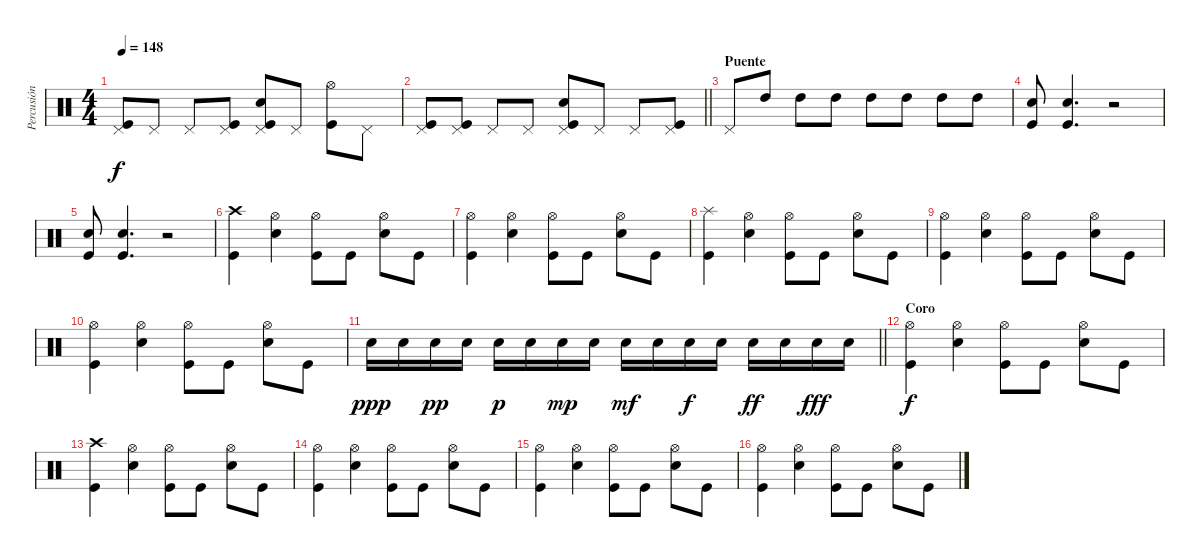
\track ("Percusión" "Percusión") {instrument percussion}
\staff {score}
\articulation defaults
\ts (4 4)
\tempo 148
\clef neutral
\ks c
("Pedal Hi-Hat (hit)" "Kick (hit)").8{dy f} "Pedal Hi-Hat (hit)".8 "Pedal Hi-Hat (hit)".8 ("Pedal Hi-Hat (hit)" "Kick (hit)").8 ("Pedal Hi-Hat (hit)" "Electric Snare (hit)" "Kick (hit)").8 "Pedal Hi-Hat (hit)".8 ("Hi-Hat (open)" "Kick (hit)").8 "Pedal Hi-Hat (hit)".8 |
\barLineRight lightlight
("Pedal Hi-Hat (hit)" "Kick (hit)").8 ("Pedal Hi-Hat (hit)" "Kick (hit)").8 "Pedal Hi-Hat (hit)".8 "Pedal Hi-Hat (hit)".8 ("Pedal Hi-Hat (hit)" "Electric Snare (hit)" "Kick (hit)").8 "Pedal Hi-Hat (hit)".8 "Pedal Hi-Hat (hit)".8 ("Pedal Hi-Hat (hit)" "Kick (hit)").8 |
\section ("" "Puente")
"Pedal Hi-Hat (hit)".8 "High Tom (hit)".8 "High Tom (hit)".8 "High Tom (hit)".8 "High Tom (hit)".8 "High Tom (hit)".8 "High Tom (hit)".8 "High Tom (hit)".8 |
("Electric Snare (hit)" "Kick (hit)").8 ("Electric Snare (hit)" "Kick (hit)").4{d} r.2 |
("Electric Snare (hit)" "Kick (hit)").8 ("Electric Snare (hit)" "Kick (hit)").4{d} r.2 |
("Crash high (hit)" "Kick (hit)").4 ("Hi-Hat (open)" "Electric Snare (hit)").4 ("Hi-Hat (open)" "Kick (hit)").8 "Kick (hit)".8 ("Hi-Hat (open)" "Electric Snare (hit)").8 "Kick (hit)".8 |
("Hi-Hat (open)" "Kick (hit)").4 ("Hi-Hat (open)" "Electric Snare (hit)").4 ("Hi-Hat (open)" "Kick (hit)").8 "Kick (hit)".8 ("Hi-Hat (open)" "Electric Snare (hit)").8 "Kick (hit)".8 |
("Splash (hit)" "Kick (hit)").4 ("Hi-Hat (open)" "Electric Snare (hit)").4 ("Hi-Hat (open)" "Kick (hit)").8 "Kick (hit)".8 ("Hi-Hat (open)" "Electric Snare (hit)").8 "Kick (hit)".8 |
("Hi-Hat (open)" "Kick (hit)").4 ("Hi-Hat (open)" "Electric Snare (hit)").4 ("Hi-Hat (open)" "Kick (hit)").8 "Kick (hit)".8 ("Hi-Hat (open)" "Electric Snare (hit)").8 "Kick (hit)".8 |
("Hi-Hat (open)" "Kick (hit)").4 ("Hi-Hat (open)" "Electric Snare (hit)").4 ("Hi-Hat (open)" "Kick (hit)").8 "Kick (hit)".8 ("Hi-Hat (open)" "Electric Snare (hit)").8 "Kick (hit)".8 |
\barLineRight lightlight "Electric Snare (hit)".16{dy ppp} "Electric Snare (hit)".16 "Electric Snare (hit)".16{dy pp} "Electric Snare (hit)".16 "Electric Snare (hit)".16{dy p} "Electric Snare (hit)".16 "Electric Snare (hit)".16{dy mp} "Electric Snare (hit)".16 "Electric Snare (hit)".16{dy mf} "Electric Snare (hit)".16 "Electric Snare (hit)".16{dy f} "Electric Snare (hit)".16 "Electric Snare (hit)".16{dy ff} "Electric Snare (hit)".16 "Electric Snare (hit)".16{dy fff} "Electric Snare (hit)".16
|
\section ("" "Coro")
("Hi-Hat (open)" "Kick (hit)").4{dy f} ("Hi-Hat (open)" "Electric Snare (hit)").4 ("Hi-Hat (open)" "Kick (hit)").8 "Kick (hit)".8 ("Hi-Hat (open)" "Electric Snare (hit)").8 "Kick (hit)".8 |
("Crash high (hit)" "Kick (hit)").4 ("Hi-Hat (open)" "Electric Snare (hit)").4 ("Hi-Hat (open)" "Kick (hit)").8 "Kick (hit)".8 ("Hi-Hat (open)" "Electric Snare (hit)").8 "Kick (hit)".8 |
("Hi-Hat (open)" "Kick (hit)").4 ("Hi-Hat (open)" "Electric Snare (hit)").4 ("Hi-Hat (open)" "Kick (hit)").8 "Kick (hit)".8 ("Hi-Hat (open)" "Electric Snare (hit)").8 "Kick (hit)".8 |
("Hi-Hat (open)" "Kick (hit)").4 ("Hi-Hat (open)" "Electric Snare (hit)").4 ("Hi-Hat (open)" "Kick (hit)").8 "Kick (hit)".8 ("Hi-Hat (open)" "Electric Snare (hit)").8 "Kick (hit)".8 |
("Hi-Hat (open)" "Kick (hit)").4 ("Hi-Hat (open)" "Electric Snare (hit)").4 ("Hi-Hat (open)" "Kick (hit)").8 "Kick (hit)".8 ("Hi-Hat (open)" "Electric Snare (hit)").8 "Kick (hit)".8
